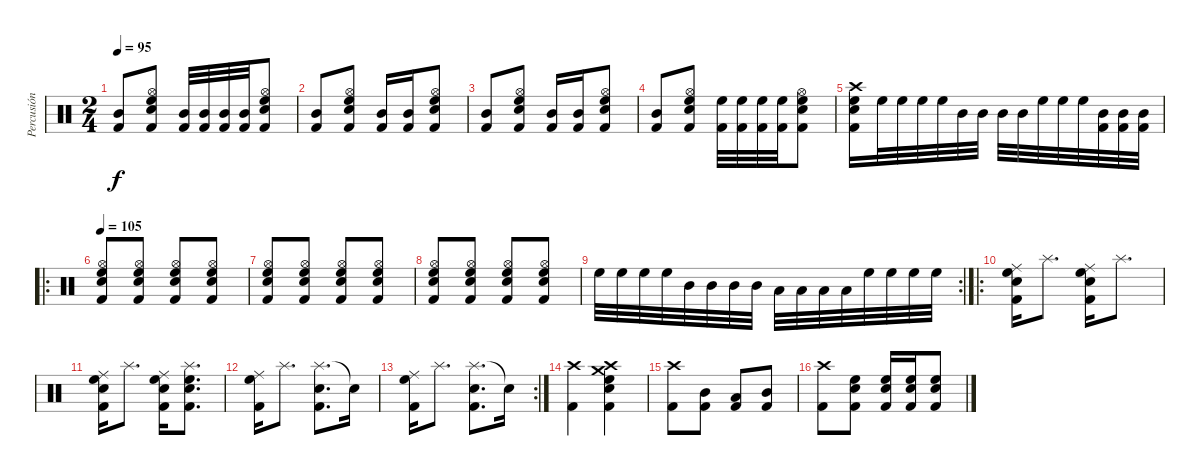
\track ("Percusión" "Percusión") {instrument percussion}
\staff {score}
\articulation defaults
\ts (2 4)
\tempo 95
\clef neutral
\ks c
("Mid Tom (hit)" "Kick (hit) 2").8{dy f} ("Hi-Hat (open)" "High Floor Tom (hit)" "Snare (hit) 2" "Kick (hit) 2").8 ("Mid Tom (hit)" "Kick (hit) 2").32 ("Mid Tom (hit)" "Kick (hit) 2").32 ("Mid Tom (hit)" "Kick (hit) 2").32 ("Mid Tom (hit)" "Kick (hit) 2").32 ("Hi-Hat (open)" "High Floor Tom (hit)" "Snare (hit) 2" "Kick (hit) 2").8 |
("Mid Tom (hit)" "Kick (hit) 2").8 ("Hi-Hat (open)" "High Floor Tom (hit)" "Snare (hit) 2" "Kick (hit) 2").8 ("Mid Tom (hit)" "Kick (hit) 2").16 ("Mid Tom (hit)" "Kick (hit) 2").16 ("Hi-Hat (open)" "High Floor Tom (hit)" "Snare (hit) 2" "Kick (hit) 2").8 |
("Mid Tom (hit)" "Kick (hit) 2").8 ("Hi-Hat (open)" "High Floor Tom (hit)" "Snare (hit) 2" "Kick (hit) 2").8 ("Mid Tom (hit)" "Kick (hit) 2").16 ("Mid Tom (hit)" "Kick (hit) 2").16 ("Hi-Hat (open)" "High Floor Tom (hit)" "Snare (hit) 2" "Kick (hit) 2").8 |
("Mid Tom (hit)" "Kick (hit) 2").8 ("Hi-Hat (open)" "High Floor Tom (hit)" "Snare (hit) 2" "Kick (hit) 2").8 ("High Floor Tom (hit)" "Kick (hit) 2").32 ("High Floor Tom (hit)" "Kick (hit) 2").32 ("High Floor Tom (hit)" "Kick (hit) 2").32 ("High Floor Tom (hit)" "Kick (hit) 2").32 ("Hi-Hat (open)" "High Floor Tom (hit)" "Snare (hit) 2" "Kick (hit) 2").8 |
("Crash high (hit)" "High Floor Tom (hit)" "Snare (hit) 2" "Kick (hit) 2").16 "High Floor Tom (hit)".32 "High Floor Tom (hit)".32 "High Floor Tom (hit)".32 "High Floor Tom (hit)".32 "Mid Tom (hit)".32 "Mid Tom (hit)".32 "Mid Tom (hit)".32 "Mid Tom (hit)".32 "High Floor Tom (hit)".32 "High Floor Tom (hit)".32 "High Floor Tom (hit)".32 ("Mid Tom (hit)" "Kick (hit) 2").32 ("Mid Tom (hit)" "Kick (hit) 2").32 ("Mid Tom (hit)" "Kick (hit) 2").32 |
\ro
\tempo 105
("Hi-Hat (open)" "High Floor Tom (hit)" "Snare (hit) 2" "Kick (hit) 2").8 ("Hi-Hat (open)" "High Floor Tom (hit)" "Snare (hit) 2" "Kick (hit) 2").8 ("Hi-Hat (open)" "High Floor Tom (hit)" "Snare (hit) 2" "Kick (hit) 2").8 ("Hi-Hat (open)" "High Floor Tom (hit)" "Snare (hit) 2" "Kick (hit) 2").8 |
("Hi-Hat (open)" "High Floor Tom (hit)" "Snare (hit) 2" "Kick (hit) 2").8 ("Hi-Hat (open)" "High Floor Tom (hit)" "Snare (hit) 2" "Kick (hit) 2").8 ("Hi-Hat (open)" "High Floor Tom (hit)" "Snare (hit) 2" "Kick (hit) 2").8 ("Hi-Hat (open)" "High Floor Tom (hit)" "Snare (hit) 2" "Kick (hit) 2").8 |
("Hi-Hat (open)" "High Floor Tom (hit)" "Snare (hit) 2" "Kick (hit) 2").8 ("Hi-Hat (open)" "High Floor Tom (hit)" "Snare (hit) 2" "Kick (hit) 2").8 ("Hi-Hat (open)" "High Floor Tom (hit)" "Snare (hit) 2" "Kick (hit) 2").8 ("Hi-Hat (open)" "High Floor Tom (hit)" "Snare (hit) 2" "Kick (hit) 2").8 |
\rc 2 "High Floor Tom (hit)".32 "High Floor Tom (hit)".32 "High Floor Tom (hit)".32 "High Floor Tom (hit)".32 "Mid Tom (hit)".32 "Mid Tom (hit)".32 "Mid Tom (hit)".32 "Mid Tom (hit)".32 "Low Tom (hit)".32 "Low Tom (hit)".32 "Low Tom (hit)".32 "Low Tom (hit)".32 "High Floor Tom (hit)".32 "High Floor Tom (hit)".32 "High Floor Tom (hit)".32 "High Floor Tom (hit)".32
|
\ro
("Ride (middle)" "High Floor Tom (hit)" "Snare (hit) 2" "Kick (hit) 2").16 "Splash (hit)".8{d} ("Ride (middle)" "High Floor Tom (hit)" "Snare (hit) 2" "Kick (hit) 2").16 "Splash (hit)".8{d} |
("Ride (middle)" "High Floor Tom (hit)" "Snare (hit) 2" "Kick (hit) 2").16 "Splash (hit)".8{d} ("Ride (middle)" "High Floor Tom (hit)" "Snare (hit) 2" "Kick (hit) 2").16 ("Splash (hit)" "High Floor Tom (hit)" "Snare (hit) 2" "Kick (hit) 2").8{d} |
("Ride (middle)" "High Floor Tom (hit)" "Kick (hit) 2").16 "Splash (hit)".8{d} ("Splash (hit)" "Snare (hit) 2" "Kick (hit) 2").8{d} "Snare (hit)"{t}.16 |
\rc 2
("Ride (middle)" "High Floor Tom (hit)" "Kick (hit) 2").16 "Splash (hit)".8{d} ("Splash (hit)" "Snare (hit) 2" "Kick (hit) 2").8{d} "Snare (hit)"{t}.16 |
("Crash high (hit)" "Kick (hit) 2").4 ("Crash high (hit)" "Crash medium (hit)" "High Floor Tom (hit)" "Snare (hit) 2" "Kick (hit) 2").4 |
("Crash high (hit)" "Kick (hit) 2").8 ("Mid Tom (hit)" "Kick (hit) 2").8 ("Low Tom (hit)" "Kick (hit) 2").8 ("Mid Tom (hit)" "Kick (hit) 2").8 |
("Crash high (hit)" "Kick (hit) 2").8 ("High Floor Tom (hit)" "Snare (hit) 2" "Kick (hit) 2").8 ("High Floor Tom (hit)" "Snare (hit) 2" "Kick (hit) 2").16 ("High Floor Tom (hit)" "Snare (hit) 2" "Kick (hit) 2").16 ("High Floor Tom (hit)" "Snare (hit) 2" "Kick (hit) 2").8
